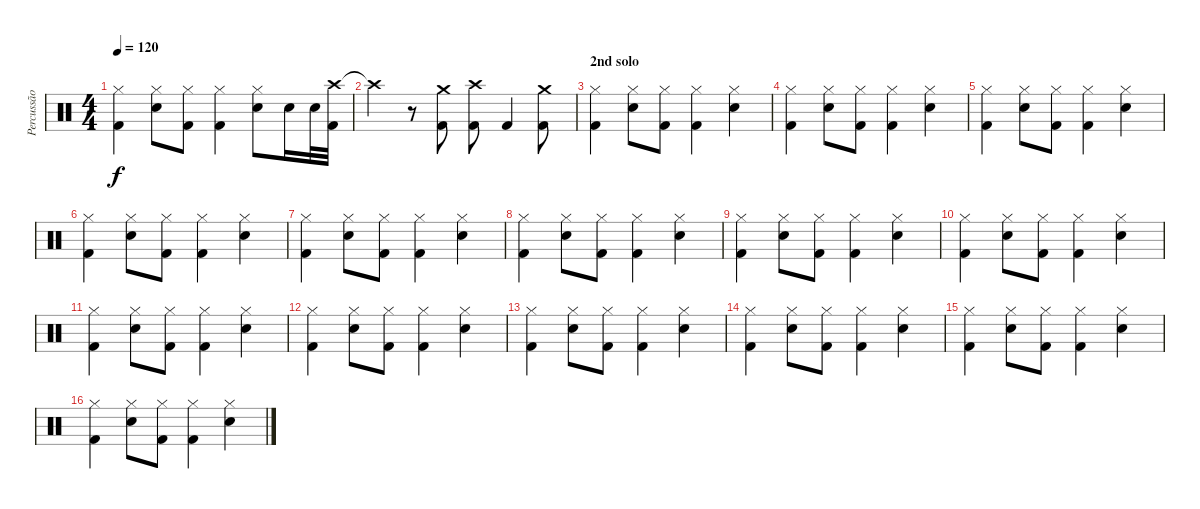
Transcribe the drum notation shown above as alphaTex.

\track ("Percussão" "Percussão") {instrument percussion}
\staff {score}
\articulation defaults
\ts (4 4)
\tempo 120
\clef neutral
\ks c
("Kick (hit) 2" "Hi-Hat (closed)").4{dy f} ("Snare (hit) 2" "Hi-Hat (closed)").8 ("Kick (hit) 2" "Hi-Hat (closed)").8 ("Kick (hit) 2" "Hi-Hat (closed)").4 ("Snare (hit) 2" "Hi-Hat (closed)").8 "Snare (hit) 2".16 "Snare (hit) 2".32 ("Crash high (hit)" "Kick (hit) 2").32 |
"Crash high (hit)"{t}.4 r.8 ("Crash medium (hit)" "Kick (hit) 2").8 ("Crash high (hit)" "Kick (hit) 2").8 "Kick (hit) 2".4 ("Crash medium (hit)" "Kick (hit) 2").8 |
\section ("" "2nd solo")
("Kick (hit) 2" "Hi-Hat (closed)").4 ("Snare (hit) 2" "Hi-Hat (closed)").8 ("Kick (hit) 2" "Hi-Hat (closed)").8 ("Kick (hit) 2" "Hi-Hat (closed)").4 ("Snare (hit) 2" "Hi-Hat (closed)").4 |
("Kick (hit) 2" "Hi-Hat (closed)").4 ("Snare (hit) 2" "Hi-Hat (closed)").8 ("Kick (hit) 2" "Hi-Hat (closed)").8 ("Kick (hit) 2" "Hi-Hat (closed)").4 ("Snare (hit) 2" "Hi-Hat (closed)").4 |
("Kick (hit) 2" "Hi-Hat (closed)").4 ("Snare (hit) 2" "Hi-Hat (closed)").8 ("Kick (hit) 2" "Hi-Hat (closed)").8 ("Kick (hit) 2" "Hi-Hat (closed)").4 ("Snare (hit) 2" "Hi-Hat (closed)").4 |
("Kick (hit) 2" "Hi-Hat (closed)").4 ("Snare (hit) 2" "Hi-Hat (closed)").8 ("Kick (hit) 2" "Hi-Hat (closed)").8 ("Kick (hit) 2" "Hi-Hat (closed)").4 ("Snare (hit) 2" "Hi-Hat (closed)").4 |
("Kick (hit) 2" "Hi-Hat (closed)").4 ("Snare (hit) 2" "Hi-Hat (closed)").8 ("Kick (hit) 2" "Hi-Hat (closed)").8 ("Kick (hit) 2" "Hi-Hat (closed)").4 ("Snare (hit) 2" "Hi-Hat (closed)").4 |
("Kick (hit) 2" "Hi-Hat (closed)").4 ("Snare (hit) 2" "Hi-Hat (closed)").8 ("Kick (hit) 2" "Hi-Hat (closed)").8 ("Kick (hit) 2" "Hi-Hat (closed)").4 ("Snare (hit) 2" "Hi-Hat (closed)").4 |
("Kick (hit) 2" "Hi-Hat (closed)").4 ("Snare (hit) 2" "Hi-Hat (closed)").8 ("Kick (hit) 2" "Hi-Hat (closed)").8 ("Kick (hit) 2" "Hi-Hat (closed)").4 ("Snare (hit) 2" "Hi-Hat (closed)").4 |
("Kick (hit) 2" "Hi-Hat (closed)").4 ("Snare (hit) 2" "Hi-Hat (closed)").8 ("Kick (hit) 2" "Hi-Hat (closed)").8 ("Kick (hit) 2" "Hi-Hat (closed)").4 ("Snare (hit) 2" "Hi-Hat (closed)").4 |
("Kick (hit) 2" "Hi-Hat (closed)").4 ("Snare (hit) 2" "Hi-Hat (closed)").8 ("Kick (hit) 2" "Hi-Hat (closed)").8 ("Kick (hit) 2" "Hi-Hat (closed)").4 ("Snare (hit) 2" "Hi-Hat (closed)").4 |
("Kick (hit) 2" "Hi-Hat (closed)").4 ("Snare (hit) 2" "Hi-Hat (closed)").8 ("Kick (hit) 2" "Hi-Hat (closed)").8 ("Kick (hit) 2" "Hi-Hat (closed)").4 ("Snare (hit) 2" "Hi-Hat (closed)").4 |
("Kick (hit) 2" "Hi-Hat (closed)").4 ("Snare (hit) 2" "Hi-Hat (closed)").8 ("Kick (hit) 2" "Hi-Hat (closed)").8 ("Kick (hit) 2" "Hi-Hat (closed)").4 ("Snare (hit) 2" "Hi-Hat (closed)").4 |
("Kick (hit) 2" "Hi-Hat (closed)").4 ("Snare (hit) 2" "Hi-Hat (closed)").8 ("Kick (hit) 2" "Hi-Hat (closed)").8 ("Kick (hit) 2" "Hi-Hat (closed)").4 ("Snare (hit) 2" "Hi-Hat (closed)").4 |
("Kick (hit) 2" "Hi-Hat (closed)").4 ("Snare (hit) 2" "Hi-Hat (closed)").8 ("Kick (hit) 2" "Hi-Hat (closed)").8 ("Kick (hit) 2" "Hi-Hat (closed)").4 ("Snare (hit) 2" "Hi-Hat (closed)").4 |
("Kick (hit) 2" "Hi-Hat (closed)").4 ("Snare (hit) 2" "Hi-Hat (closed)").8 ("Kick (hit) 2" "Hi-Hat (closed)").8 ("Kick (hit) 2" "Hi-Hat (closed)").4 ("Snare (hit) 2" "Hi-Hat (closed)").4
